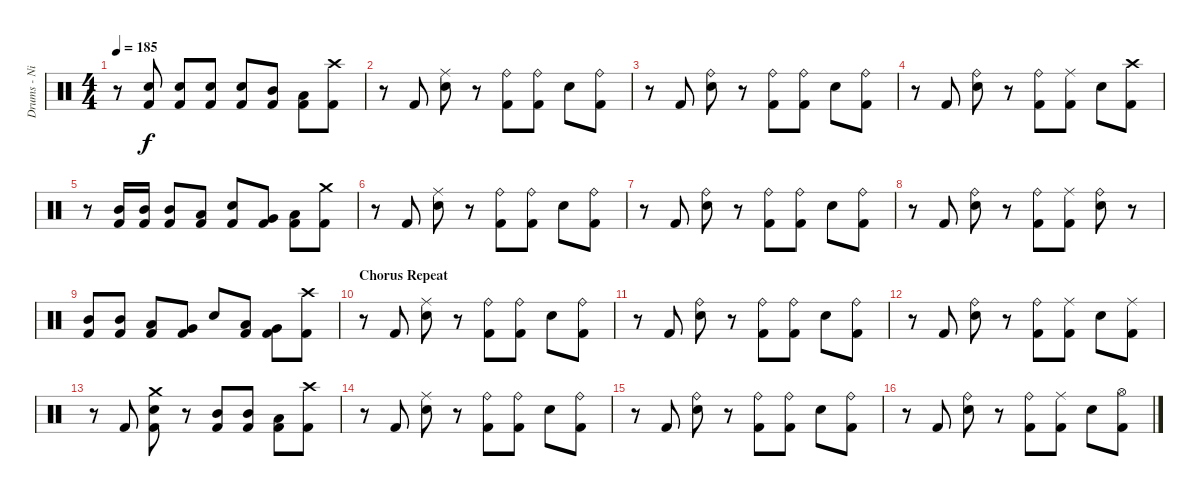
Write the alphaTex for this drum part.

\track ("Drums - Nicko" "Drums - Ni") {instrument percussion}
\staff {score}
\articulation defaults
\ts (4 4)
\tempo 185
\clef neutral
\ks c
r.8{dy f} ("Snare (hit) 2" "Kick (hit) 2").8 ("Snare (hit) 2" "Kick (hit) 2").8 ("Snare (hit) 2" "Kick (hit) 2").8 ("Snare (hit) 2" "Kick (hit) 2").8 ("Mid Tom (hit)" "Kick (hit) 2").8 ("Low Tom (hit)" "Kick (hit) 2").8 ("Crash high (hit)" "Kick (hit) 2").8 |
r.8 "Kick (hit) 2".8 ("Ride (middle)" "Snare (hit) 2").8 r.8 ("Ride (bell)" "Kick (hit) 2").8 ("Ride (bell)" "Kick (hit) 2").8 "Snare (hit) 2".8 ("Ride (bell)" "Kick (hit) 2").8 |
r.8 "Kick (hit) 2".8 ("Ride (bell)" "Snare (hit) 2").8 r.8 ("Ride (bell)" "Kick (hit) 2").8 ("Ride (bell)" "Kick (hit) 2").8 "Snare (hit) 2".8 ("Ride (bell)" "Kick (hit) 2").8 |
r.8 "Kick (hit) 2".8 ("Ride (bell)" "Snare (hit) 2").8 r.8 ("Ride (bell)" "Kick (hit) 2").8 ("Ride (middle)" "Kick (hit) 2").8 "Snare (hit) 2".8 ("Crash high (hit)" "Kick (hit) 2").8 |
r.8 ("Mid Tom (hit)" "Kick (hit) 2").16 ("Mid Tom (hit)" "Kick (hit) 2").16 ("Mid Tom (hit)" "Kick (hit) 2").8 ("Low Tom (hit)" "Kick (hit) 2").8 ("Snare (hit) 2" "Kick (hit) 2").8 ("Very Low Tom (hit)" "Kick (hit) 2").8 ("Low Floor Tom (hit)" "Kick (hit) 2").8 ("Crash medium (hit)" "Kick (hit) 2").8 |
r.8 "Kick (hit) 2".8 ("Ride (middle)" "Snare (hit) 2").8 r.8 ("Ride (bell)" "Kick (hit) 2").8 ("Ride (bell)" "Kick (hit) 2").8 "Snare (hit) 2".8 ("Ride (bell)" "Kick (hit) 2").8 |
r.8 "Kick (hit) 2".8 ("Ride (bell)" "Snare (hit) 2").8 r.8 ("Ride (bell)" "Kick (hit) 2").8 ("Ride (bell)" "Kick (hit) 2").8 "Snare (hit) 2".8 ("Ride (bell)" "Kick (hit) 2").8 |
r.8 "Kick (hit) 2".8 ("Ride (bell)" "Snare (hit) 2").8 r.8 ("Ride (bell)" "Kick (hit) 2").8 ("Ride (middle)" "Kick (hit) 2").8 ("Ride (bell)" "Snare (hit) 2").8 r.8 |
("Mid Tom (hit)" "Kick (hit) 2").8 ("Mid Tom (hit)" "Kick (hit) 2").8 ("Low Tom (hit)" "Kick (hit) 2").8 ("Very Low Tom (hit)" "Kick (hit) 2").8 "Snare (hit) 2".8 ("Low Tom (hit)" "Kick (hit) 2").8 ("Very Low Tom (hit)" "Kick (hit) 2").8 ("Crash high (hit)" "Kick (hit) 2").8 |
\section ("" "Chorus Repeat")
r.8 "Kick (hit) 2".8 ("Ride (middle)" "Snare (hit) 2").8 r.8 ("Ride (bell)" "Kick (hit) 2").8 ("Ride (bell)" "Kick (hit) 2").8 "Snare (hit) 2".8 ("Ride (bell)" "Kick (hit) 2").8 |
r.8 "Kick (hit) 2".8 ("Ride (bell)" "Snare (hit) 2").8 r.8 ("Ride (bell)" "Kick (hit) 2").8 ("Ride (bell)" "Kick (hit) 2").8 "Snare (hit) 2".8 ("Ride (bell)" "Kick (hit) 2").8 |
r.8 "Kick (hit) 2".8 ("Ride (bell)" "Snare (hit) 2").8 r.8 ("Ride (bell)" "Kick (hit) 2").8 ("Ride (middle)" "Kick (hit) 2").8 "Snare (hit) 2".8 ("Ride (middle)" "Kick (hit) 2").8 |
r.8 "Kick (hit) 2".8 ("Crash medium (hit)" "Snare (hit) 2" "Kick (hit) 2").8 r.8 ("Mid Tom (hit)" "Kick (hit) 2").8 ("Mid Tom (hit)" "Kick (hit) 2").8 ("Low Tom (hit)" "Kick (hit) 2").8 ("Crash high (hit)" "Kick (hit) 2").8 |
r.8 "Kick (hit) 2".8 ("Ride (middle)" "Snare (hit) 2").8 r.8 ("Ride (bell)" "Kick (hit) 2").8 ("Ride (bell)" "Kick (hit) 2").8 "Snare (hit) 2".8 ("Ride (bell)" "Kick (hit) 2").8 |
r.8 "Kick (hit) 2".8 ("Ride (bell)" "Snare (hit) 2").8 r.8 ("Ride (bell)" "Kick (hit) 2").8 ("Ride (bell)" "Kick (hit) 2").8 "Snare (hit) 2".8 ("Ride (bell)" "Kick (hit) 2").8 |
r.8 "Kick (hit) 2".8 ("Ride (bell)" "Snare (hit) 2").8 r.8 ("Ride (bell)" "Kick (hit) 2").8 ("Ride (middle)" "Kick (hit) 2").8 "Snare (hit) 2".8 ("Hi-Hat (open)" "Kick (hit) 2").8
